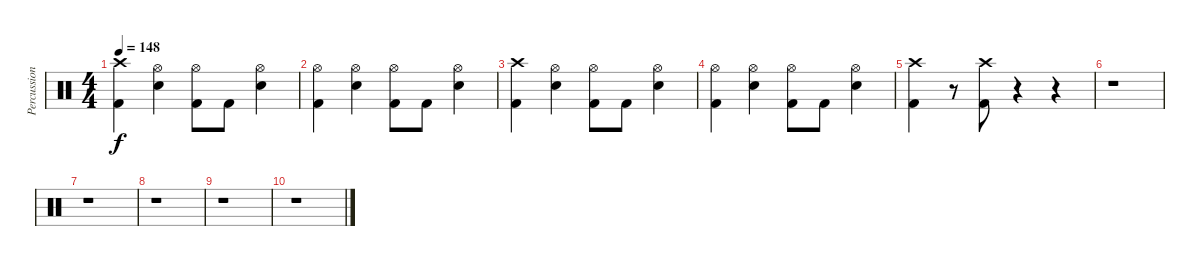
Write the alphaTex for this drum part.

\track ("Percussion" "Percussion") {instrument percussion}
\staff {score}
\articulation defaults
\ts (4 4)
\tempo 148
\clef neutral
\ks c
("Crash high (hit)" "Kick (hit) 2").4{dy f} ("Hi-Hat (open)" "Electric Snare (hit)").4 ("Hi-Hat (open)" "Kick (hit) 2").8 "Kick (hit) 2".8 ("Hi-Hat (open)" "Electric Snare (hit)").4 |
("Hi-Hat (open)" "Kick (hit) 2").4 ("Hi-Hat (open)" "Electric Snare (hit)").4 ("Hi-Hat (open)" "Kick (hit) 2").8 "Kick (hit) 2".8 ("Hi-Hat (open)" "Electric Snare (hit)").4 |
("Crash high (hit)" "Kick (hit) 2").4 ("Hi-Hat (open)" "Electric Snare (hit)").4 ("Hi-Hat (open)" "Kick (hit) 2").8 "Kick (hit) 2".8 ("Hi-Hat (open)" "Electric Snare (hit)").4 |
("Hi-Hat (open)" "Kick (hit) 2").4 ("Hi-Hat (open)" "Electric Snare (hit)").4 ("Hi-Hat (open)" "Kick (hit) 2").8 "Kick (hit) 2".8 ("Hi-Hat (open)" "Electric Snare (hit)").4 |
("Crash high (hit)" "Kick (hit) 2").4 r.8 ("Crash high (hit)" "Kick (hit) 2").8 r.4 r.4 |
r.1 |
r.1 |
r.1 |
r.1 |
r.1
